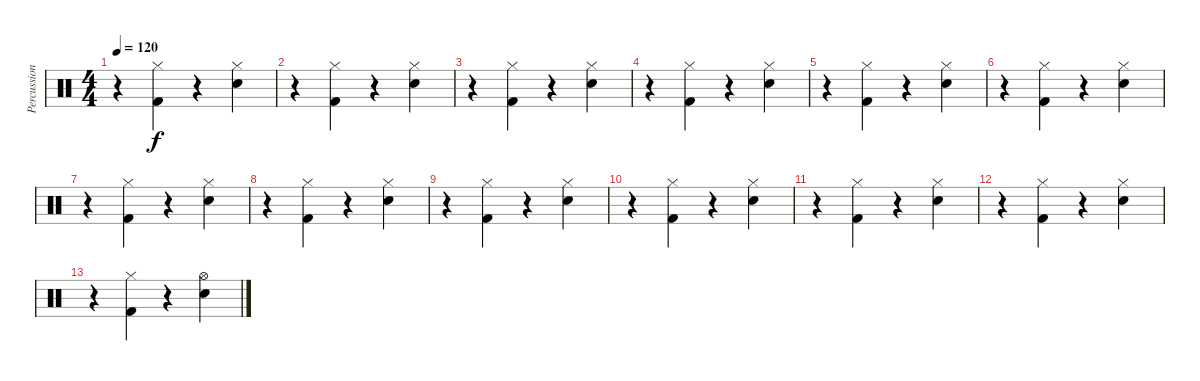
\track ("Percussion" "Percussion") {instrument percussion}
\staff {score}
\articulation defaults
\ts (4 4)
\tempo 120
\clef neutral
\ks c
r.4{dy f} ("Hi-Hat (closed)" "Kick (hit) 2").4 r.4 ("Hi-Hat (closed)" "Electric Snare (hit)").4 |
r.4 ("Hi-Hat (closed)" "Kick (hit) 2").4 r.4 ("Hi-Hat (closed)" "Electric Snare (hit)").4 |
r.4 ("Hi-Hat (closed)" "Kick (hit) 2").4 r.4 ("Hi-Hat (closed)" "Electric Snare (hit)").4 |
r.4 ("Hi-Hat (closed)" "Kick (hit) 2").4 r.4 ("Hi-Hat (closed)" "Electric Snare (hit)").4 |
r.4 ("Hi-Hat (closed)" "Kick (hit) 2").4 r.4 ("Hi-Hat (closed)" "Electric Snare (hit)").4 |
r.4 ("Hi-Hat (closed)" "Kick (hit) 2").4 r.4 ("Hi-Hat (closed)" "Electric Snare (hit)").4 |
r.4 ("Hi-Hat (closed)" "Kick (hit) 2").4 r.4 ("Hi-Hat (closed)" "Electric Snare (hit)").4 |
r.4 ("Hi-Hat (closed)" "Kick (hit) 2").4 r.4 ("Hi-Hat (closed)" "Electric Snare (hit)").4 |
r.4 ("Hi-Hat (closed)" "Kick (hit) 2").4 r.4 ("Hi-Hat (closed)" "Electric Snare (hit)").4 |
r.4 ("Hi-Hat (closed)" "Kick (hit) 2").4 r.4 ("Hi-Hat (closed)" "Electric Snare (hit)").4 |
r.4 ("Hi-Hat (closed)" "Kick (hit) 2").4 r.4 ("Hi-Hat (closed)" "Electric Snare (hit)").4 |
r.4 ("Hi-Hat (closed)" "Kick (hit) 2").4 r.4 ("Hi-Hat (closed)" "Electric Snare (hit)").4 |
r.4 ("Hi-Hat (closed)" "Kick (hit) 2").4 r.4 ("Hi-Hat (open)" "Electric Snare (hit)").4
